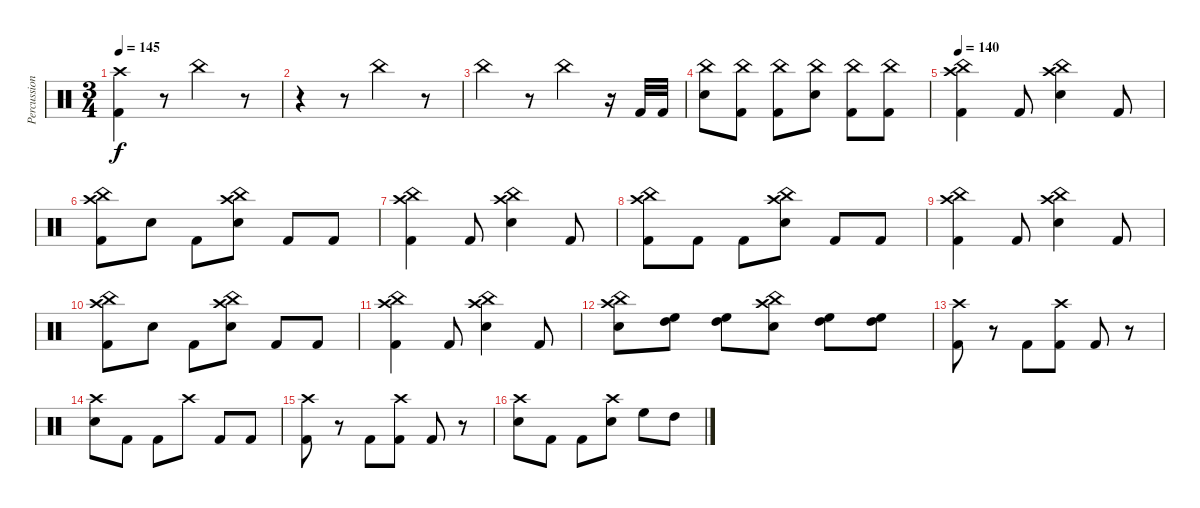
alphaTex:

\track ("Percussion" "Percussion") {instrument percussion}
\staff {score}
\articulation defaults
\ts (3 4)
\tempo 145
\clef neutral
\ks c
("Crash high (hit)" "Kick (hit) 2").4{dy f} r.8 "China (hit)".4 r.8 |
r.4 r.8 "China (hit)".4 r.8 |
"China (hit)".4 r.8 "China (hit)".4 r.16 "Kick (hit) 2".32 "Kick (hit) 2".32 |
("China (hit)" "Electric Snare (hit)").8 ("China (hit)" "Kick (hit) 2").8 ("China (hit)" "Kick (hit) 2").8 ("China (hit)" "Electric Snare (hit)").8 ("China (hit)" "Kick (hit) 2").8 ("China (hit)" "Kick (hit) 2").8 |
\tempo 140
("Crash high (hit)" "China (hit)" "Kick (hit) 2").4 "Kick (hit) 2".8 ("Crash high (hit)" "China (hit)" "Electric Snare (hit)").4 "Kick (hit) 2".8 |
("Crash high (hit)" "China (hit)" "Kick (hit) 2").8 "Electric Snare (hit)".8 "Kick (hit) 2".8 ("Crash high (hit)" "China (hit)" "Electric Snare (hit)").8 "Kick (hit) 2".8 "Kick (hit) 2".8 |
("Crash high (hit)" "China (hit)" "Kick (hit) 2").4 "Kick (hit) 2".8 ("Crash high (hit)" "China (hit)" "Electric Snare (hit)").4 "Kick (hit) 2".8 |
("Crash high (hit)" "China (hit)" "Kick (hit) 2").8 "Kick (hit) 2".8 "Kick (hit) 2".8 ("Crash high (hit)" "China (hit)" "Electric Snare (hit)").8 "Kick (hit) 2".8 "Kick (hit) 2".8 |
("Crash high (hit)" "China (hit)" "Kick (hit) 2").4 "Kick (hit) 2".8 ("Crash high (hit)" "China (hit)" "Electric Snare (hit)").4 "Kick (hit) 2".8 |
("Crash high (hit)" "China (hit)" "Kick (hit) 2").8 "Electric Snare (hit)".8 "Kick (hit) 2".8 ("Crash high (hit)" "China (hit)" "Electric Snare (hit)").8 "Kick (hit) 2".8 "Kick (hit) 2".8 |
("Crash high (hit)" "China (hit)" "Kick (hit) 2").4 "Kick (hit) 2".8 ("Crash high (hit)" "China (hit)" "Electric Snare (hit)").4 "Kick (hit) 2".8 |
("Crash high (hit)" "China (hit)" "Electric Snare (hit)").8 ("High Floor Tom (hit)" "High Tom (hit)").8 ("High Floor Tom (hit)" "High Tom (hit)").8 ("Crash high (hit)" "China (hit)" "Electric Snare (hit)").8 ("High Floor Tom (hit)" "High Tom (hit)").8 ("High Floor Tom (hit)" "High Tom (hit)").8 |
("Crash high (hit)" "Kick (hit) 2").8 r.8 "Kick (hit) 2".8 ("Crash high (hit)" "Kick (hit) 2").8 "Kick (hit) 2".8 r.8 |
("Crash high (hit)" "Electric Snare (hit)").8 "Kick (hit) 2".8 "Kick (hit) 2".8 "Crash high (hit)".8 "Kick (hit) 2".8 "Kick (hit) 2".8 |
("Crash high (hit)" "Kick (hit) 2").8 r.8 "Kick (hit) 2".8 ("Crash high (hit)" "Kick (hit) 2").8 "Kick (hit) 2".8 r.8 |
("Crash high (hit)" "Electric Snare (hit)").8 "Kick (hit) 2".8 "Kick (hit) 2".8 ("Crash high (hit)" "Electric Snare (hit)").8 "High Floor Tom (hit)".8 "High Tom (hit)".8
